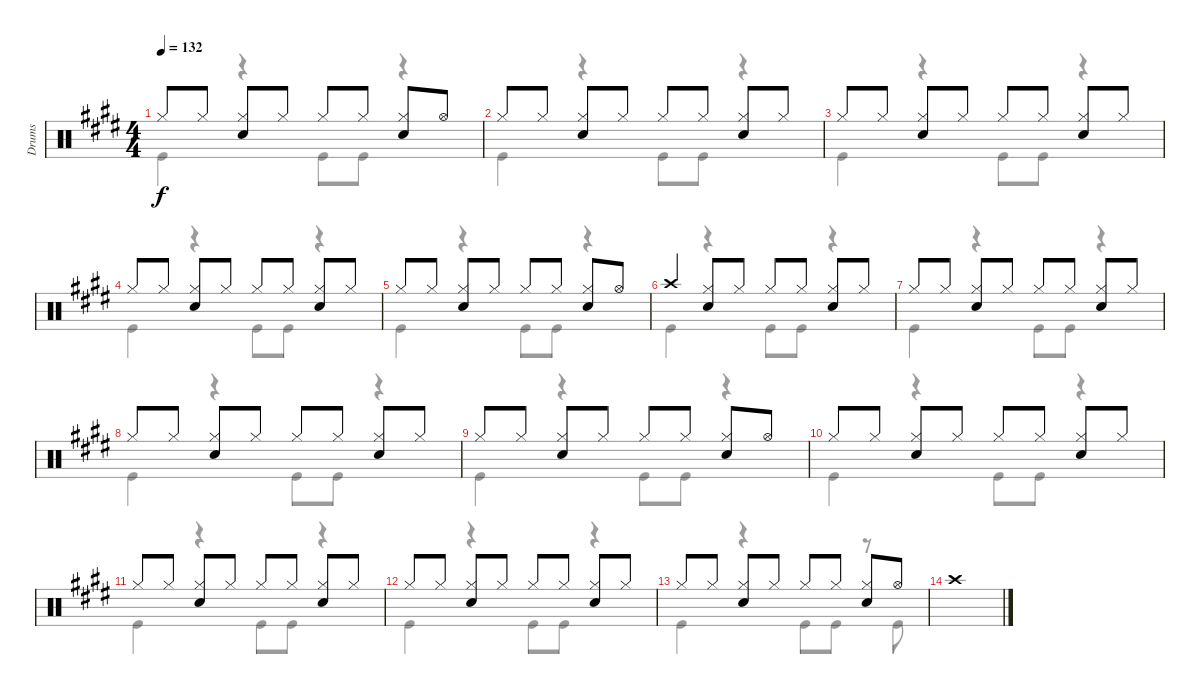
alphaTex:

\track ("Drums" "Drums") {instrument percussion}
\staff {score}
\articulation defaults
\voice
\ts (4 4)
\tempo 132
\clef neutral
\ks e "Hi-Hat (closed)".8{dy f} "Hi-Hat (closed)".8
("Hi-Hat (closed)" "Snare (hit) 2").8 "Hi-Hat (closed)".8 "Hi-Hat (closed)".8 "Hi-Hat (closed)".8 ("Hi-Hat (closed)" "Snare (hit) 2").8 "Hi-Hat (open)".8 |
"Hi-Hat (closed)".8 "Hi-Hat (closed)".8 ("Hi-Hat (closed)" "Snare (hit) 2").8 "Hi-Hat (closed)".8 "Hi-Hat (closed)".8 "Hi-Hat (closed)".8 ("Hi-Hat (closed)" "Snare (hit) 2").8 "Hi-Hat (closed)".8 |
"Hi-Hat (closed)".8 "Hi-Hat (closed)".8 ("Hi-Hat (closed)" "Snare (hit) 2").8 "Hi-Hat (closed)".8 "Hi-Hat (closed)".8 "Hi-Hat (closed)".8 ("Hi-Hat (closed)" "Snare (hit) 2").8 "Hi-Hat (closed)".8 |
"Hi-Hat (closed)".8 "Hi-Hat (closed)".8 ("Hi-Hat (closed)" "Snare (hit) 2").8 "Hi-Hat (closed)".8 "Hi-Hat (closed)".8 "Hi-Hat (closed)".8 ("Hi-Hat (closed)" "Snare (hit) 2").8 "Hi-Hat (closed)".8 |
"Hi-Hat (closed)".8 "Hi-Hat (closed)".8 ("Hi-Hat (closed)" "Snare (hit) 2").8 "Hi-Hat (closed)".8 "Hi-Hat (closed)".8 "Hi-Hat (closed)".8 ("Hi-Hat (closed)" "Snare (hit) 2").8 "Hi-Hat (open)".8 |
"Crash high (hit)".4 ("Hi-Hat (closed)" "Snare (hit) 2").8 "Hi-Hat (closed)".8 "Hi-Hat (closed)".8 "Hi-Hat (closed)".8 ("Hi-Hat (closed)" "Snare (hit) 2").8 "Hi-Hat (closed)".8 |
"Hi-Hat (closed)".8 "Hi-Hat (closed)".8 ("Hi-Hat (closed)" "Snare (hit) 2").8 "Hi-Hat (closed)".8 "Hi-Hat (closed)".8 "Hi-Hat (closed)".8 ("Hi-Hat (closed)" "Snare (hit) 2").8 "Hi-Hat (closed)".8 |
"Hi-Hat (closed)".8 "Hi-Hat (closed)".8 ("Hi-Hat (closed)" "Snare (hit) 2").8 "Hi-Hat (closed)".8 "Hi-Hat (closed)".8 "Hi-Hat (closed)".8 ("Hi-Hat (closed)" "Snare (hit) 2").8 "Hi-Hat (closed)".8 |
"Hi-Hat (closed)".8 "Hi-Hat (closed)".8 ("Hi-Hat (closed)" "Snare (hit) 2").8 "Hi-Hat (closed)".8 "Hi-Hat (closed)".8 "Hi-Hat (closed)".8 ("Hi-Hat (closed)" "Snare (hit) 2").8 "Hi-Hat (open)".8 |
"Hi-Hat (closed)".8 "Hi-Hat (closed)".8 ("Hi-Hat (closed)" "Snare (hit) 2").8 "Hi-Hat (closed)".8 "Hi-Hat (closed)".8 "Hi-Hat (closed)".8 ("Hi-Hat (closed)" "Snare (hit) 2").8 "Hi-Hat (closed)".8 |
"Hi-Hat (closed)".8 "Hi-Hat (closed)".8 ("Hi-Hat (closed)" "Snare (hit) 2").8 "Hi-Hat (closed)".8 "Hi-Hat (closed)".8 "Hi-Hat (closed)".8 ("Hi-Hat (closed)" "Snare (hit) 2").8 "Hi-Hat (closed)".8 |
"Hi-Hat (closed)".8 "Hi-Hat (closed)".8 ("Hi-Hat (closed)" "Snare (hit) 2").8 "Hi-Hat (closed)".8 "Hi-Hat (closed)".8 "Hi-Hat (closed)".8 ("Hi-Hat (closed)" "Snare (hit) 2").8 "Hi-Hat (closed)".8 |
"Hi-Hat (closed)".8 "Hi-Hat (closed)".8 ("Hi-Hat (closed)" "Snare (hit) 2").8 "Hi-Hat (closed)".8 "Hi-Hat (closed)".8 "Hi-Hat (closed)".8 ("Hi-Hat (closed)" "Snare (hit) 2").8 "Hi-Hat (open)".8 |
"Crash high (hit)".1 |
|
\voice
\clef neutral
\ottava regular
\simile none
\ks e "Kick (hit)".4{dy f}
r.4 "Kick (hit)".8 "Kick (hit)".8 r.4 |
"Kick (hit)".4 r.4 "Kick (hit)".8 "Kick (hit)".8 r.4 |
"Kick (hit)".4 r.4 "Kick (hit)".8 "Kick (hit)".8 r.4 |
"Kick (hit)".4 r.4 "Kick (hit)".8 "Kick (hit)".8 r.4 |
"Kick (hit)".4 r.4 "Kick (hit)".8 "Kick (hit)".8 r.4 |
"Kick (hit)".4 r.4 "Kick (hit)".8 "Kick (hit)".8 r.4 |
"Kick (hit)".4 r.4 "Kick (hit)".8 "Kick (hit)".8 r.4 |
"Kick (hit)".4 r.4 "Kick (hit)".8 "Kick (hit)".8 r.4 |
"Kick (hit)".4 r.4 "Kick (hit)".8 "Kick (hit)".8 r.4 |
"Kick (hit)".4 r.4 "Kick (hit)".8 "Kick (hit)".8 r.4 |
"Kick (hit)".4 r.4 "Kick (hit)".8 "Kick (hit)".8 r.4 |
"Kick (hit)".4 r.4 "Kick (hit)".8 "Kick (hit)".8 r.4 |
"Kick (hit)".4 r.4 "Kick (hit)".8 "Kick (hit)".8 r.8 "Kick (hit)".8 |
|
|
